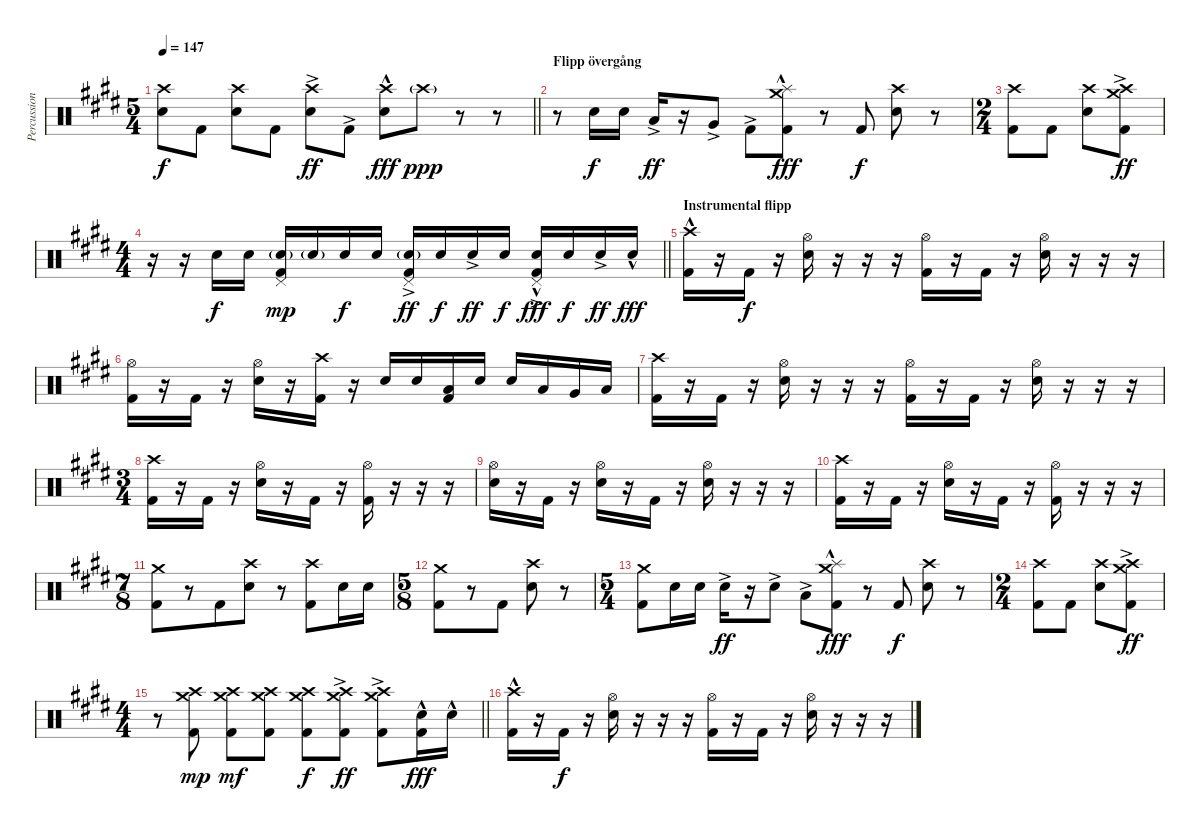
\track ("Percussion" "Percussion") {instrument percussion}
\staff {score}
\articulation defaults
\ts (5 4)
\tempo 147
\clef neutral
\barLineRight lightlight
\ks e
("Crash high (hit)" "Snare (hit) 2").8{dy f} "Kick (hit) 2".8 ("Crash high (hit)" "Snare (hit) 2").8 "Kick (hit) 2".8 ("Crash high (hit)"{ac} "Snare (hit) 2"{ac}).8{dy ff} "Kick (hit) 2"{ac}.8 ("Crash high (hit)"{hac} "Snare (hit) 2"{hac}).8{dy fff} "Crash high (hit)"{g}.8{dy ppp} r.8 r.8 |
\section ("" "Flipp övergång")
r.8 "Snare (hit) 2".16{dy f} "Snare (hit) 2".16 "Low Tom (hit)"{ac}.16{dy ff} r.16 "Very Low Tom (hit)"{ac}.8 "Kick (hit) 2"{ac}.8 ("Crash medium (hit)"{hac} "Splash (hit)" "Kick (hit) 2"{hac}).8{dy fff} r.8 "Kick (hit) 2".8{dy f} ("Crash high (hit)" "Snare (hit) 2").8 r.8 |
\ts (2 4)
("Crash high (hit)" "Kick (hit) 2").8 "Kick (hit) 2".8 ("Crash high (hit)" "Snare (hit) 2").8 ("Crash medium (hit)"{ac} "Crash high (hit)"{ac} "Kick (hit) 2"{ac}).8{dy ff} |
\ts (4 4)
\barLineRight lightlight
r.16 r.16 "Snare (hit) 2".16{dy f} "Snare (hit) 2".16 ("Pedal Hi-Hat (hit)" "Snare (hit) 2"{g} "Kick (hit) 2").16{dy mp} "Snare (hit) 2"{g}.16 "Snare (hit) 2".16{dy f} "Snare (hit) 2".16 ("Pedal Hi-Hat (hit)"{ac} "Snare (hit) 2"{g} "Kick (hit) 2"{ac}).16{dy ff} "Snare (hit) 2".16{dy f} "Snare (hit) 2"{ac}.16{dy ff} "Snare (hit) 2".16{dy f} ("Pedal Hi-Hat (hit)"{hac} "Snare (hit) 2"{ac} "Kick (hit) 2"{hac}).16{dy fff} "Snare (hit) 2".16{dy f} "Snare (hit) 2"{ac}.16{dy ff} "Snare (hit) 2"{hac}.16{dy fff} |
\section ("" "Instrumental flipp")
("Crash high (hit)"{hac} "Kick (hit) 2"{hac}).16 r.16 "Kick (hit) 2".16{dy f} r.16 ("Hi-Hat (open)" "Snare (hit) 2").16 r.16 r.16 r.16 ("Hi-Hat (open)" "Kick (hit) 2").16 r.16 "Kick (hit) 2".16 r.16 ("Hi-Hat (open)" "Snare (hit) 2").16 r.16 r.16 r.16 |
("Hi-Hat (open)" "Kick (hit) 2").16 r.16 "Kick (hit) 2".16 r.16 ("Hi-Hat (open)" "Snare (hit) 2").16 r.16 ("Crash high (hit)" "Kick (hit) 2").16 r.16 "Snare (hit) 2".16 "Snare (hit) 2".16 ("Low Tom (hit)" "Kick (hit) 2").16 "Snare (hit) 2".16 "Snare (hit) 2".16 "Low Tom (hit)".16 "Very Low Tom (hit)".16 "Low Floor Tom (hit)".16 |
("Crash high (hit)" "Kick (hit) 2").16 r.16 "Kick (hit) 2".16 r.16 ("Hi-Hat (open)" "Snare (hit) 2").16 r.16 r.16 r.16 ("Hi-Hat (open)" "Kick (hit) 2").16 r.16 "Kick (hit) 2".16 r.16 ("Hi-Hat (open)" "Snare (hit) 2").16 r.16 r.16 r.16 |
\ts (3 4)
("Crash high (hit)" "Kick (hit) 2").16 r.16 "Kick (hit) 2".16 r.16 ("Hi-Hat (open)" "Snare (hit) 2").16 r.16 "Kick (hit) 2".16 r.16 ("Hi-Hat (open)" "Kick (hit) 2").16 r.16 r.16 r.16 |
("Hi-Hat (open)" "Snare (hit) 2").16 r.16 "Kick (hit) 2".16 r.16 ("Hi-Hat (open)" "Snare (hit) 2").16 r.16 "Kick (hit) 2".16 r.16 ("Hi-Hat (open)" "Snare (hit) 2").16 r.16 r.16 r.16 |
("Crash high (hit)" "Kick (hit) 2").16 r.16 "Kick (hit) 2".16 r.16 ("Hi-Hat (open)" "Snare (hit) 2").16 r.16 "Kick (hit) 2".16 r.16 ("Hi-Hat (open)" "Kick (hit) 2").16 r.16 r.16 r.16 |
\ts (7 8)
("Crash medium (hit)" "Kick (hit) 2").8 r.8 "Kick (hit) 2".8 ("Crash high (hit)" "Snare (hit) 2").8 r.8 ("Crash high (hit)" "Kick (hit) 2").8 "Snare (hit) 2".16 "Snare (hit) 2".16 |
\ts (5 8)
("Crash medium (hit)" "Kick (hit) 2").8 r.8 "Kick (hit) 2".8 ("Crash high (hit)" "Snare (hit) 2").8 r.8 |
\ts (5 4)
("Crash medium (hit)" "Kick (hit) 2").8 "Snare (hit) 2".16 "Snare (hit) 2".16 "Snare (hit) 2"{ac}.16{dy ff} r.16 "Snare (hit) 2"{ac}.8 "Low Tom (hit)"{ac}.8 ("Crash medium (hit)"{hac} "Splash (hit)" "Kick (hit) 2"{hac}).8{dy fff} r.8 "Kick (hit) 2".8{dy f} ("Crash high (hit)" "Snare (hit) 2").8 r.8 |
\ts (2 4)
("Crash high (hit)" "Kick (hit) 2").8 "Kick (hit) 2".8 ("Crash high (hit)" "Snare (hit) 2").8 ("Crash medium (hit)"{ac} "Crash high (hit)"{ac} "Kick (hit) 2"{ac}).8{dy ff} |
\ts (4 4)
\barLineRight lightlight
r.8 ("Crash medium (hit)" "Crash high (hit)" "Kick (hit) 2").8{dy mp} ("Crash medium (hit)" "Crash high (hit)" "Kick (hit) 2").8{dy mf} ("Crash medium (hit)" "Crash high (hit)" "Kick (hit) 2").8 ("Crash medium (hit)" "Crash high (hit)" "Kick (hit) 2").8{dy f} ("Crash medium (hit)"{ac} "Crash high (hit)"{ac} "Kick (hit) 2"{ac}).8{dy ff} ("Crash medium (hit)"{ac} "Crash high (hit)"{ac} "Kick (hit) 2"{ac}).8 ("Snare (hit) 2"{hac} "Kick (hit) 2"{hac}).16{dy fff} "Snare (hit) 2"{hac}.16 |
("Crash high (hit)"{hac} "Kick (hit) 2"{hac}).16 r.16 "Kick (hit) 2".16{dy f} r.16 ("Hi-Hat (open)" "Snare (hit) 2").16 r.16 r.16 r.16 ("Hi-Hat (open)" "Kick (hit) 2").16 r.16 "Kick (hit) 2".16 r.16 ("Hi-Hat (open)" "Snare (hit) 2").16 r.16 r.16 r.16
